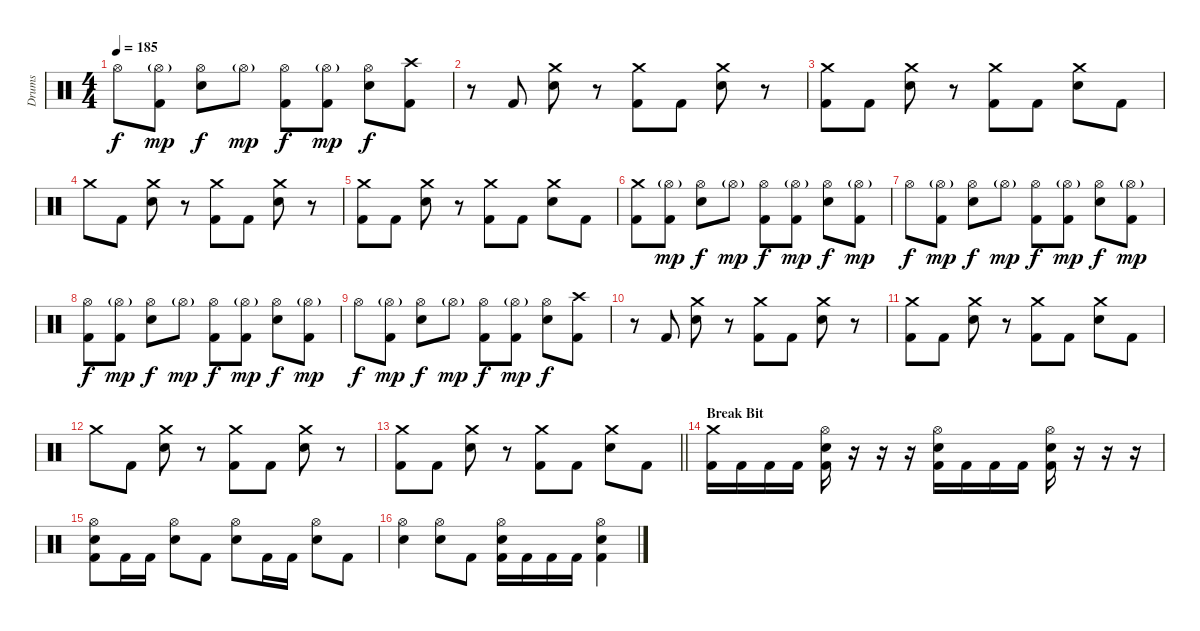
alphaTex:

\track ("Drums" "Drums") {instrument percussion}
\staff {score}
\articulation defaults
\ts (4 4)
\tempo 185
\clef neutral
\ks c "Hi-Hat (open)".8{dy f}
("Hi-Hat (open)"{g} "Kick (hit) 2").8{dy mp} ("Hi-Hat (open)" "Electric Snare (hit)").8{dy f} "Hi-Hat (open)"{g}.8{dy mp} ("Hi-Hat (open)" "Kick (hit) 2").8{dy f} ("Hi-Hat (open)"{g} "Kick (hit) 2").8{dy mp} ("Hi-Hat (open)" "Electric Snare (hit)").8{dy f} ("Crash high (hit)" "Kick (hit) 2").8 |
r.8 "Kick (hit) 2".8 ("Crash medium (hit)" "Electric Snare (hit)").8 r.8 ("Crash medium (hit)" "Kick (hit) 2").8 "Kick (hit) 2".8 ("Crash medium (hit)" "Electric Snare (hit)").8 r.8 |
("Crash medium (hit)" "Kick (hit) 2").8 "Kick (hit) 2".8 ("Crash medium (hit)" "Electric Snare (hit)").8 r.8 ("Crash medium (hit)" "Kick (hit) 2").8 "Kick (hit) 2".8 ("Crash medium (hit)" "Electric Snare (hit)").8 "Kick (hit) 2".8 |
"Crash medium (hit)".8 "Kick (hit) 2".8 ("Crash medium (hit)" "Electric Snare (hit)").8 r.8 ("Crash medium (hit)" "Kick (hit) 2").8 "Kick (hit) 2".8 ("Crash medium (hit)" "Electric Snare (hit)").8 r.8 |
("Crash medium (hit)" "Kick (hit) 2").8 "Kick (hit) 2".8 ("Crash medium (hit)" "Electric Snare (hit)").8 r.8 ("Crash medium (hit)" "Kick (hit) 2").8 "Kick (hit) 2".8 ("Crash medium (hit)" "Electric Snare (hit)").8 "Kick (hit) 2".8 |
("Crash medium (hit)" "Kick (hit) 2").8 ("Hi-Hat (open)"{g} "Kick (hit) 2").8{dy mp} ("Hi-Hat (open)" "Electric Snare (hit)").8{dy f} "Hi-Hat (open)"{g}.8{dy mp} ("Hi-Hat (open)" "Kick (hit) 2").8{dy f} ("Hi-Hat (open)"{g} "Kick (hit) 2").8{dy mp} ("Hi-Hat (open)" "Electric Snare (hit)").8{dy f} ("Hi-Hat (open)"{g} "Kick (hit) 2").8{dy mp} |
"Hi-Hat (open)".8{dy f} ("Hi-Hat (open)"{g} "Kick (hit) 2").8{dy mp} ("Hi-Hat (open)" "Electric Snare (hit)").8{dy f} "Hi-Hat (open)"{g}.8{dy mp} ("Hi-Hat (open)" "Kick (hit) 2").8{dy f} ("Hi-Hat (open)"{g} "Kick (hit) 2").8{dy mp} ("Hi-Hat (open)" "Electric Snare (hit)").8{dy f} ("Hi-Hat (open)"{g} "Kick (hit) 2").8{dy mp} |
("Hi-Hat (open)" "Kick (hit) 2").8{dy f} ("Hi-Hat (open)"{g} "Kick (hit) 2").8{dy mp} ("Hi-Hat (open)" "Electric Snare (hit)").8{dy f} "Hi-Hat (open)"{g}.8{dy mp} ("Hi-Hat (open)" "Kick (hit) 2").8{dy f} ("Hi-Hat (open)"{g} "Kick (hit) 2").8{dy mp} ("Hi-Hat (open)" "Electric Snare (hit)").8{dy f} ("Hi-Hat (open)"{g} "Kick (hit) 2").8{dy mp} |
"Hi-Hat (open)".8{dy f} ("Hi-Hat (open)"{g} "Kick (hit) 2").8{dy mp} ("Hi-Hat (open)" "Electric Snare (hit)").8{dy f} "Hi-Hat (open)"{g}.8{dy mp} ("Hi-Hat (open)" "Kick (hit) 2").8{dy f} ("Hi-Hat (open)"{g} "Kick (hit) 2").8{dy mp} ("Hi-Hat (open)" "Electric Snare (hit)").8{dy f} ("Crash high (hit)" "Kick (hit) 2").8 |
r.8 "Kick (hit) 2".8 ("Crash medium (hit)" "Electric Snare (hit)").8 r.8 ("Crash medium (hit)" "Kick (hit) 2").8 "Kick (hit) 2".8 ("Crash medium (hit)" "Electric Snare (hit)").8 r.8 |
("Crash medium (hit)" "Kick (hit) 2").8 "Kick (hit) 2".8 ("Crash medium (hit)" "Electric Snare (hit)").8 r.8 ("Crash medium (hit)" "Kick (hit) 2").8 "Kick (hit) 2".8 ("Crash medium (hit)" "Electric Snare (hit)").8 "Kick (hit) 2".8 |
"Crash medium (hit)".8 "Kick (hit) 2".8 ("Crash medium (hit)" "Electric Snare (hit)").8 r.8 ("Crash medium (hit)" "Kick (hit) 2").8 "Kick (hit) 2".8 ("Crash medium (hit)" "Electric Snare (hit)").8 r.8 |
\barLineRight lightlight
("Crash medium (hit)" "Kick (hit) 2").8 "Kick (hit) 2".8 ("Crash medium (hit)" "Electric Snare (hit)").8 r.8 ("Crash medium (hit)" "Kick (hit) 2").8 "Kick (hit) 2".8 ("Crash medium (hit)" "Electric Snare (hit)").8 "Kick (hit) 2".8 |
\section ("" "Break Bit")
("Crash medium (hit)" "Kick (hit) 2").16 "Kick (hit) 2".16 "Kick (hit) 2".16 "Kick (hit) 2".16 ("Hi-Hat (open)" "Electric Snare (hit)" "Kick (hit) 2").16 r.16 r.16 r.16 ("Hi-Hat (open)" "Electric Snare (hit)" "Kick (hit) 2").16 "Kick (hit) 2".16 "Kick (hit) 2".16 "Kick (hit) 2".16 ("Hi-Hat (open)" "Electric Snare (hit)" "Kick (hit) 2").16 r.16 r.16 r.16 |
("Hi-Hat (open)" "Electric Snare (hit)" "Kick (hit) 2").8 "Kick (hit) 2".16 "Kick (hit) 2".16 ("Hi-Hat (open)" "Electric Snare (hit)").8 "Kick (hit) 2".8 ("Hi-Hat (open)" "Electric Snare (hit)").8 "Kick (hit) 2".16 "Kick (hit) 2".16 ("Hi-Hat (open)" "Electric Snare (hit)").8 "Kick (hit) 2".8 |
("Hi-Hat (open)" "Electric Snare (hit)").4 ("Hi-Hat (open)" "Electric Snare (hit)").8 "Kick (hit) 2".8 ("Hi-Hat (open)" "Electric Snare (hit)" "Kick (hit) 2").16 "Kick (hit) 2".16 "Kick (hit) 2".16 "Kick (hit) 2".16 ("Hi-Hat (open)" "Electric Snare (hit)" "Kick (hit) 2").4
